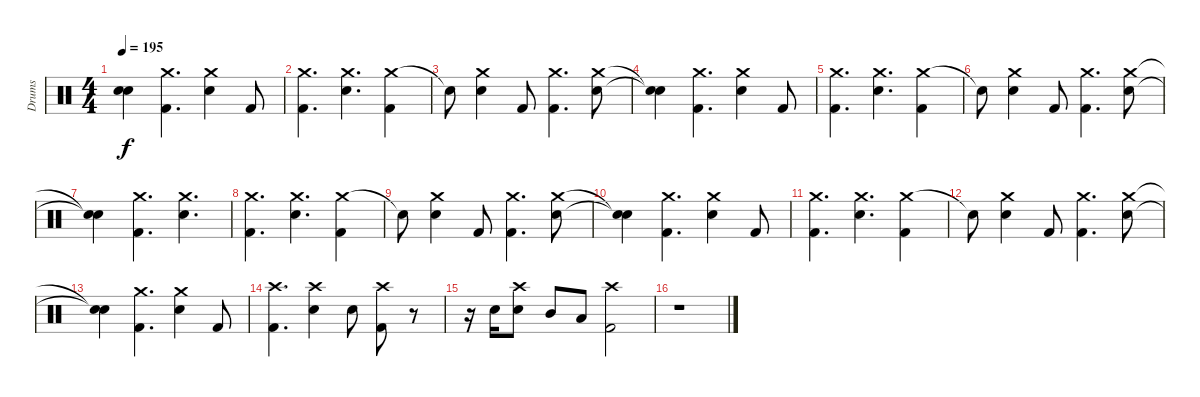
\track ("Drums" "Drums") {instrument percussion}
\staff {score}
\articulation defaults
\ts (4 4)
\tempo 195
\clef neutral
\ks c
("Snare (hit)"{t} "Snare (hit)"{t}).4{dy f} ("Crash medium (hit)" "Kick (hit) 2").4{d} ("Crash medium (hit)" "Electric Snare (hit)").4 "Kick (hit) 2".8 |
("Crash medium (hit)" "Kick (hit) 2").4{d} ("Crash medium (hit)" "Electric Snare (hit)").4{d} ("Crash medium (hit)" "Kick (hit) 2").4 |
"Snare (hit)"{t}.8 ("Crash medium (hit)" "Electric Snare (hit)").4 "Kick (hit) 2".8 ("Crash medium (hit)" "Kick (hit) 2").4{d} ("Crash medium (hit)" "Electric Snare (hit)").8 |
("Snare (hit)"{t} "Snare (hit)"{t}).4 ("Crash medium (hit)" "Kick (hit) 2").4{d} ("Crash medium (hit)" "Electric Snare (hit)").4 "Kick (hit) 2".8 |
("Crash medium (hit)" "Kick (hit) 2").4{d} ("Crash medium (hit)" "Electric Snare (hit)").4{d} ("Crash medium (hit)" "Kick (hit) 2").4 |
"Snare (hit)"{t}.8 ("Crash medium (hit)" "Electric Snare (hit)").4 "Kick (hit) 2".8 ("Crash medium (hit)" "Kick (hit) 2").4{d} ("Crash medium (hit)" "Electric Snare (hit)").8 |
("Snare (hit)"{t} "Snare (hit)"{t}).4 ("Crash medium (hit)" "Kick (hit) 2").4{d} ("Crash medium (hit)" "Electric Snare (hit)").4{d} |
("Crash medium (hit)" "Kick (hit) 2").4{d} ("Crash medium (hit)" "Electric Snare (hit)").4{d} ("Crash medium (hit)" "Kick (hit) 2").4 |
"Snare (hit)"{t}.8 ("Crash medium (hit)" "Electric Snare (hit)").4 "Kick (hit) 2".8 ("Crash medium (hit)" "Kick (hit) 2").4{d} ("Crash medium (hit)" "Electric Snare (hit)").8 |
("Snare (hit)"{t} "Snare (hit)"{t}).4 ("Crash medium (hit)" "Kick (hit) 2").4{d} ("Crash medium (hit)" "Electric Snare (hit)").4 "Kick (hit) 2".8 |
("Crash medium (hit)" "Kick (hit) 2").4{d} ("Crash medium (hit)" "Electric Snare (hit)").4{d} ("Crash medium (hit)" "Kick (hit) 2").4 |
"Snare (hit)"{t}.8 ("Crash medium (hit)" "Electric Snare (hit)").4 "Kick (hit) 2".8 ("Crash medium (hit)" "Kick (hit) 2").4{d} ("Crash medium (hit)" "Electric Snare (hit)").8 |
("Snare (hit)"{t} "Snare (hit)"{t}).4 ("Crash medium (hit)" "Kick (hit) 2").4{d} ("Crash medium (hit)" "Electric Snare (hit)").4 "Kick (hit) 2".8 |
("Crash high (hit)" "Kick (hit) 2").4{d} ("Crash high (hit)" "Electric Snare (hit)").4 "Electric Snare (hit)".8 ("Crash high (hit)" "Kick (hit) 2").8 r.8 |
r.16 "Electric Snare (hit)".16 ("Crash high (hit)" "Electric Snare (hit)").8 "Mid Tom (hit)".8 "Low Tom (hit)".8 ("Crash high (hit)" "Kick (hit) 2").2 |
r.1
